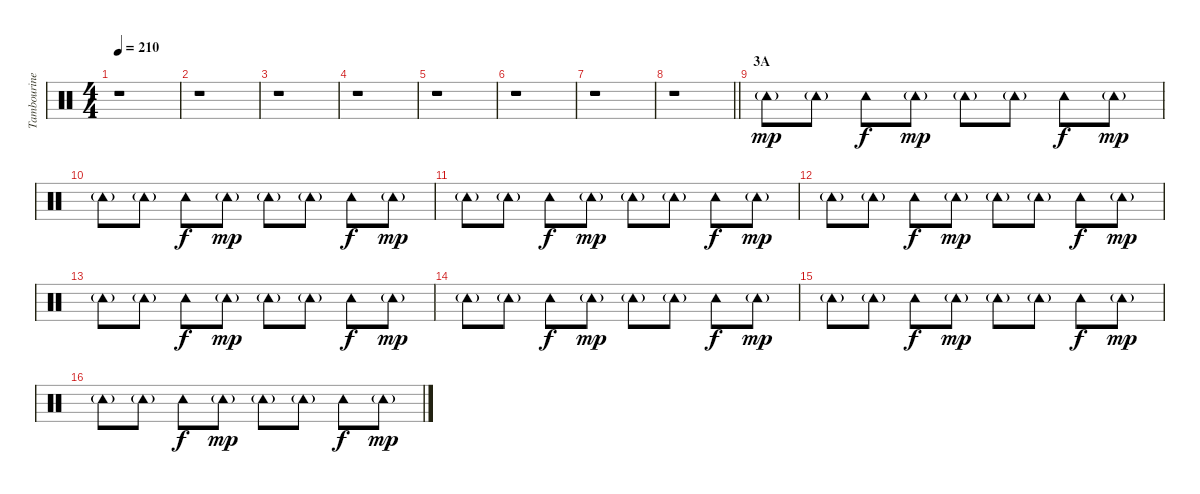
\track ("Tambourine" "Tambourine") {instrument percussion}
\staff {score}
\articulation defaults
\ts (4 4)
\tempo 210
\clef neutral
\ks c
r.1{dy f} |
r.1 |
r.1 |
r.1 |
r.1 |
r.1 |
r.1 |
\barLineRight lightlight
r.1 |
\section ("" "3A")
"Tambourine (hit)"{g}.8{dy mp} "Tambourine (hit)"{g}.8 "Tambourine (hit)".8{dy f} "Tambourine (hit)"{g}.8{dy mp} "Tambourine (hit)"{g}.8 "Tambourine (hit)"{g}.8 "Tambourine (hit)".8{dy f} "Tambourine (hit)"{g}.8{dy mp} |
"Tambourine (hit)"{g}.8 "Tambourine (hit)"{g}.8 "Tambourine (hit)".8{dy f} "Tambourine (hit)"{g}.8{dy mp} "Tambourine (hit)"{g}.8 "Tambourine (hit)"{g}.8 "Tambourine (hit)".8{dy f} "Tambourine (hit)"{g}.8{dy mp} |
"Tambourine (hit)"{g}.8 "Tambourine (hit)"{g}.8 "Tambourine (hit)".8{dy f} "Tambourine (hit)"{g}.8{dy mp} "Tambourine (hit)"{g}.8 "Tambourine (hit)"{g}.8 "Tambourine (hit)".8{dy f} "Tambourine (hit)"{g}.8{dy mp} |
"Tambourine (hit)"{g}.8 "Tambourine (hit)"{g}.8 "Tambourine (hit)".8{dy f} "Tambourine (hit)"{g}.8{dy mp} "Tambourine (hit)"{g}.8 "Tambourine (hit)"{g}.8 "Tambourine (hit)".8{dy f} "Tambourine (hit)"{g}.8{dy mp} |
"Tambourine (hit)"{g}.8 "Tambourine (hit)"{g}.8 "Tambourine (hit)".8{dy f} "Tambourine (hit)"{g}.8{dy mp} "Tambourine (hit)"{g}.8 "Tambourine (hit)"{g}.8 "Tambourine (hit)".8{dy f} "Tambourine (hit)"{g}.8{dy mp} |
"Tambourine (hit)"{g}.8 "Tambourine (hit)"{g}.8 "Tambourine (hit)".8{dy f} "Tambourine (hit)"{g}.8{dy mp} "Tambourine (hit)"{g}.8 "Tambourine (hit)"{g}.8 "Tambourine (hit)".8{dy f} "Tambourine (hit)"{g}.8{dy mp} |
"Tambourine (hit)"{g}.8 "Tambourine (hit)"{g}.8 "Tambourine (hit)".8{dy f} "Tambourine (hit)"{g}.8{dy mp} "Tambourine (hit)"{g}.8 "Tambourine (hit)"{g}.8 "Tambourine (hit)".8{dy f} "Tambourine (hit)"{g}.8{dy mp} |
"Tambourine (hit)"{g}.8 "Tambourine (hit)"{g}.8 "Tambourine (hit)".8{dy f} "Tambourine (hit)"{g}.8{dy mp} "Tambourine (hit)"{g}.8 "Tambourine (hit)"{g}.8 "Tambourine (hit)".8{dy f} "Tambourine (hit)"{g}.8{dy mp}
